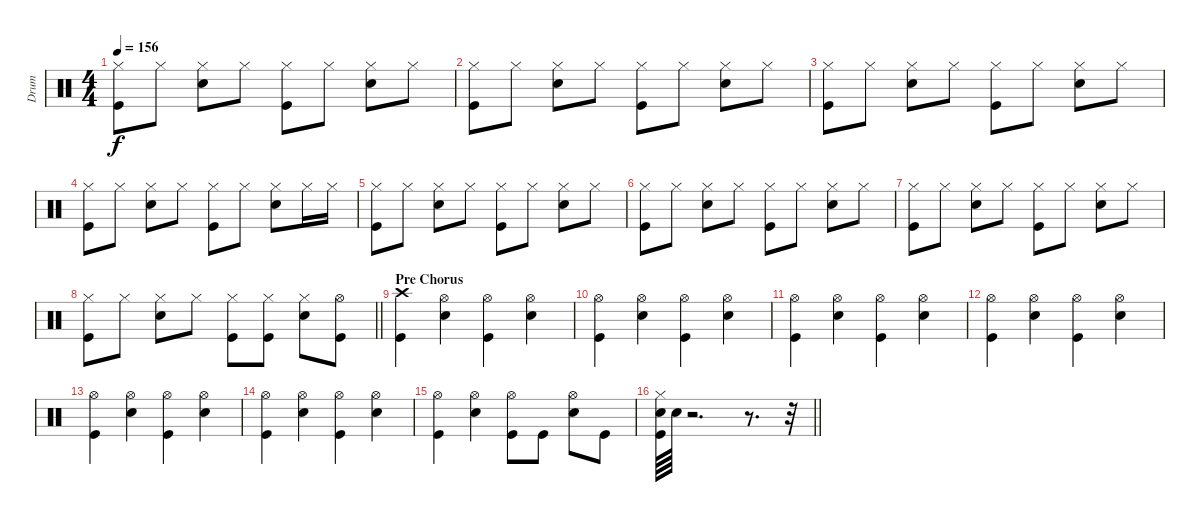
\track ("Drum" "Drum") {instrument percussion}
\staff {score}
\articulation defaults
\ts (4 4)
\tempo 156
\clef neutral
\ks c
("Hi-Hat (closed)" "Kick (hit)").8{dy f} "Hi-Hat (closed)".8 ("Hi-Hat (closed)" "Snare (hit) 2").8 "Hi-Hat (closed)".8 ("Hi-Hat (closed)" "Kick (hit)").8 "Hi-Hat (closed)".8 ("Hi-Hat (closed)" "Snare (hit) 2").8 "Hi-Hat (closed)".8 |
("Hi-Hat (closed)" "Kick (hit)").8 "Hi-Hat (closed)".8 ("Hi-Hat (closed)" "Snare (hit) 2").8 "Hi-Hat (closed)".8 ("Hi-Hat (closed)" "Kick (hit)").8 "Hi-Hat (closed)".8 ("Hi-Hat (closed)" "Snare (hit) 2").8 "Hi-Hat (closed)".8 |
("Hi-Hat (closed)" "Kick (hit)").8 "Hi-Hat (closed)".8 ("Hi-Hat (closed)" "Snare (hit) 2").8 "Hi-Hat (closed)".8 ("Hi-Hat (closed)" "Kick (hit)").8 "Hi-Hat (closed)".8 ("Hi-Hat (closed)" "Snare (hit) 2").8 "Hi-Hat (closed)".8 |
("Hi-Hat (closed)" "Kick (hit)").8 "Hi-Hat (closed)".8 ("Hi-Hat (closed)" "Snare (hit) 2").8 "Hi-Hat (closed)".8 ("Hi-Hat (closed)" "Kick (hit)").8 "Hi-Hat (closed)".8 ("Hi-Hat (closed)" "Snare (hit) 2").8 "Hi-Hat (closed)".16 "Hi-Hat (closed)".16 |
("Hi-Hat (closed)" "Kick (hit)").8 "Hi-Hat (closed)".8 ("Hi-Hat (closed)" "Snare (hit) 2").8 "Hi-Hat (closed)".8 ("Hi-Hat (closed)" "Kick (hit)").8 "Hi-Hat (closed)".8 ("Hi-Hat (closed)" "Snare (hit) 2").8 "Hi-Hat (closed)".8 |
("Hi-Hat (closed)" "Kick (hit)").8 "Hi-Hat (closed)".8 ("Hi-Hat (closed)" "Snare (hit) 2").8 "Hi-Hat (closed)".8 ("Hi-Hat (closed)" "Kick (hit)").8 "Hi-Hat (closed)".8 ("Hi-Hat (closed)" "Snare (hit) 2").8 "Hi-Hat (closed)".8 |
("Hi-Hat (closed)" "Kick (hit)").8 "Hi-Hat (closed)".8 ("Hi-Hat (closed)" "Snare (hit) 2").8 "Hi-Hat (closed)".8 ("Hi-Hat (closed)" "Kick (hit)").8 "Hi-Hat (closed)".8 ("Hi-Hat (closed)" "Snare (hit) 2").8 "Hi-Hat (closed)".8 |
\barLineRight lightlight
("Hi-Hat (closed)" "Kick (hit)").8 "Hi-Hat (closed)".8 ("Hi-Hat (closed)" "Snare (hit) 2").8 "Hi-Hat (closed)".8 ("Hi-Hat (closed)" "Kick (hit)").8 ("Hi-Hat (closed)" "Kick (hit)").8 ("Hi-Hat (closed)" "Snare (hit) 2").8 ("Hi-Hat (open)" "Kick (hit)").8 |
\section ("" "Pre Chorus")
("Crash high (hit)" "Kick (hit)").4 ("Hi-Hat (open)" "Snare (hit) 2").4 ("Hi-Hat (open)" "Kick (hit)").4 ("Hi-Hat (open)" "Snare (hit) 2").4 |
("Hi-Hat (open)" "Kick (hit)").4 ("Hi-Hat (open)" "Snare (hit) 2").4 ("Hi-Hat (open)" "Kick (hit)").4 ("Hi-Hat (open)" "Snare (hit) 2").4 |
("Hi-Hat (open)" "Kick (hit)").4 ("Hi-Hat (open)" "Snare (hit) 2").4 ("Hi-Hat (open)" "Kick (hit)").4 ("Hi-Hat (open)" "Snare (hit) 2").4 |
("Hi-Hat (open)" "Kick (hit)").4 ("Hi-Hat (open)" "Snare (hit) 2").4 ("Hi-Hat (open)" "Kick (hit)").4 ("Hi-Hat (open)" "Snare (hit) 2").4 |
("Hi-Hat (open)" "Kick (hit)").4 ("Hi-Hat (open)" "Snare (hit) 2").4 ("Hi-Hat (open)" "Kick (hit)").4 ("Hi-Hat (open)" "Snare (hit) 2").4 |
("Hi-Hat (open)" "Kick (hit)").4 ("Hi-Hat (open)" "Snare (hit) 2").4 ("Hi-Hat (open)" "Kick (hit)").4 ("Hi-Hat (open)" "Snare (hit) 2").4 |
("Hi-Hat (open)" "Kick (hit)").4 ("Hi-Hat (open)" "Snare (hit) 2").4 ("Hi-Hat (open)" "Kick (hit)").8 "Kick (hit)".8 ("Hi-Hat (open)" "Snare (hit) 2").8 "Kick (hit)".8 |
\barLineRight lightlight
("Hi-Hat (closed)" "Snare (hit) 2" "Kick (hit)").64 "Snare (hit) 2".64 r.2{d} r.8{d} r.32
